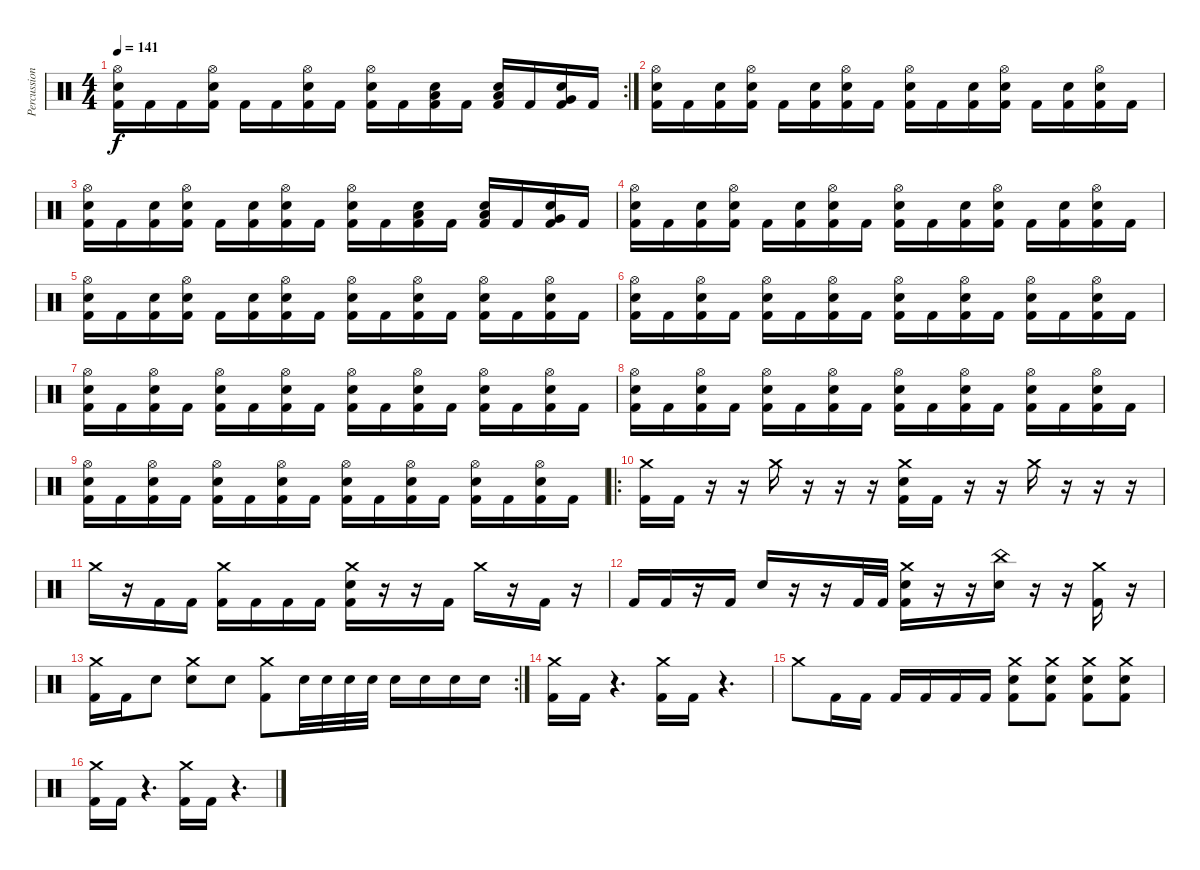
\track ("Percussion" "Percussion") {instrument percussion}
\staff {score}
\articulation defaults
\rc 2
\ts (4 4)
\tempo 141
\clef neutral
\ks c
("Hi-Hat (open)" "Electric Snare (hit)" "Kick (hit) 2").16{dy f} "Kick (hit) 2".16 "Kick (hit) 2".16 ("Hi-Hat (open)" "Electric Snare (hit)" "Kick (hit) 2").16 "Kick (hit) 2".16 "Kick (hit) 2".16 ("Hi-Hat (open)" "Electric Snare (hit)" "Kick (hit) 2").16 "Kick (hit) 2".16 ("Hi-Hat (open)" "Electric Snare (hit)" "Kick (hit) 2").16 "Kick (hit) 2".16 ("Electric Snare (hit)" "Low Tom (hit)" "Kick (hit) 2").16 "Kick (hit) 2".16 ("Electric Snare (hit)" "Low Floor Tom (hit)" "Kick (hit) 2").16 "Kick (hit) 2".16 ("Electric Snare (hit)" "Very Low Tom (hit)" "Kick (hit) 2").16 "Kick (hit) 2".16 |
("Hi-Hat (open)" "Electric Snare (hit)" "Kick (hit) 2").16 "Kick (hit) 2".16 ("Electric Snare (hit)" "Kick (hit) 2").16 ("Hi-Hat (open)" "Electric Snare (hit)" "Kick (hit) 2").16 "Kick (hit) 2".16 ("Electric Snare (hit)" "Kick (hit) 2").16 ("Hi-Hat (open)" "Electric Snare (hit)" "Kick (hit) 2").16 "Kick (hit) 2".16 ("Hi-Hat (open)" "Electric Snare (hit)" "Kick (hit) 2").16 "Kick (hit) 2".16 ("Electric Snare (hit)" "Kick (hit) 2").16 ("Hi-Hat (open)" "Electric Snare (hit)" "Kick (hit) 2").16 "Kick (hit) 2".16 ("Electric Snare (hit)" "Kick (hit) 2").16 ("Hi-Hat (open)" "Electric Snare (hit)" "Kick (hit) 2").16 "Kick (hit) 2".16 |
("Hi-Hat (open)" "Electric Snare (hit)" "Kick (hit) 2").16 "Kick (hit) 2".16 ("Electric Snare (hit)" "Kick (hit) 2").16 ("Hi-Hat (open)" "Electric Snare (hit)" "Kick (hit) 2").16 "Kick (hit) 2".16 ("Electric Snare (hit)" "Kick (hit) 2").16 ("Hi-Hat (open)" "Electric Snare (hit)" "Kick (hit) 2").16 "Kick (hit) 2".16 ("Hi-Hat (open)" "Electric Snare (hit)" "Kick (hit) 2").16 "Kick (hit) 2".16 ("Electric Snare (hit)" "Low Tom (hit)" "Kick (hit) 2").16 "Kick (hit) 2".16 ("Electric Snare (hit)" "Low Floor Tom (hit)" "Kick (hit) 2").16 "Kick (hit) 2".16 ("Electric Snare (hit)" "Very Low Tom (hit)" "Kick (hit) 2").16 "Kick (hit) 2".16 |
("Hi-Hat (open)" "Electric Snare (hit)" "Kick (hit) 2").16 "Kick (hit) 2".16 ("Electric Snare (hit)" "Kick (hit) 2").16 ("Hi-Hat (open)" "Electric Snare (hit)" "Kick (hit) 2").16 "Kick (hit) 2".16 ("Electric Snare (hit)" "Kick (hit) 2").16 ("Hi-Hat (open)" "Electric Snare (hit)" "Kick (hit) 2").16 "Kick (hit) 2".16 ("Hi-Hat (open)" "Electric Snare (hit)" "Kick (hit) 2").16 "Kick (hit) 2".16 ("Electric Snare (hit)" "Kick (hit) 2").16 ("Hi-Hat (open)" "Electric Snare (hit)" "Kick (hit) 2").16 "Kick (hit) 2".16 ("Electric Snare (hit)" "Kick (hit) 2").16 ("Hi-Hat (open)" "Electric Snare (hit)" "Kick (hit) 2").16 "Kick (hit) 2".16 |
("Hi-Hat (open)" "Electric Snare (hit)" "Kick (hit) 2").16 "Kick (hit) 2".16 ("Electric Snare (hit)" "Kick (hit) 2").16 ("Hi-Hat (open)" "Electric Snare (hit)" "Kick (hit) 2").16 "Kick (hit) 2".16 ("Electric Snare (hit)" "Kick (hit) 2").16 ("Hi-Hat (open)" "Electric Snare (hit)" "Kick (hit) 2").16 "Kick (hit) 2".16 ("Hi-Hat (open)" "Electric Snare (hit)" "Kick (hit) 2").16 "Kick (hit) 2".16 ("Hi-Hat (open)" "Electric Snare (hit)" "Kick (hit) 2").16 "Kick (hit) 2".16 ("Hi-Hat (open)" "Electric Snare (hit)" "Kick (hit) 2").16 "Kick (hit) 2".16 ("Hi-Hat (open)" "Electric Snare (hit)" "Kick (hit) 2").16 "Kick (hit) 2".16 |
("Hi-Hat (open)" "Electric Snare (hit)" "Kick (hit) 2").16 "Kick (hit) 2".16 ("Hi-Hat (open)" "Electric Snare (hit)" "Kick (hit) 2").16 "Kick (hit) 2".16 ("Hi-Hat (open)" "Electric Snare (hit)" "Kick (hit) 2").16 "Kick (hit) 2".16 ("Hi-Hat (open)" "Electric Snare (hit)" "Kick (hit) 2").16 "Kick (hit) 2".16 ("Hi-Hat (open)" "Electric Snare (hit)" "Kick (hit) 2").16 "Kick (hit) 2".16 ("Hi-Hat (open)" "Electric Snare (hit)" "Kick (hit) 2").16 "Kick (hit) 2".16 ("Hi-Hat (open)" "Electric Snare (hit)" "Kick (hit) 2").16 "Kick (hit) 2".16 ("Hi-Hat (open)" "Electric Snare (hit)" "Kick (hit) 2").16 "Kick (hit) 2".16 |
("Hi-Hat (open)" "Electric Snare (hit)" "Kick (hit) 2").16 "Kick (hit) 2".16 ("Hi-Hat (open)" "Electric Snare (hit)" "Kick (hit) 2").16 "Kick (hit) 2".16 ("Hi-Hat (open)" "Electric Snare (hit)" "Kick (hit) 2").16 "Kick (hit) 2".16 ("Hi-Hat (open)" "Electric Snare (hit)" "Kick (hit) 2").16 "Kick (hit) 2".16 ("Hi-Hat (open)" "Electric Snare (hit)" "Kick (hit) 2").16 "Kick (hit) 2".16 ("Hi-Hat (open)" "Electric Snare (hit)" "Kick (hit) 2").16 "Kick (hit) 2".16 ("Hi-Hat (open)" "Electric Snare (hit)" "Kick (hit) 2").16 "Kick (hit) 2".16 ("Hi-Hat (open)" "Electric Snare (hit)" "Kick (hit) 2").16 "Kick (hit) 2".16 |
("Hi-Hat (open)" "Electric Snare (hit)" "Kick (hit) 2").16 "Kick (hit) 2".16 ("Hi-Hat (open)" "Electric Snare (hit)" "Kick (hit) 2").16 "Kick (hit) 2".16 ("Hi-Hat (open)" "Electric Snare (hit)" "Kick (hit) 2").16 "Kick (hit) 2".16 ("Hi-Hat (open)" "Electric Snare (hit)" "Kick (hit) 2").16 "Kick (hit) 2".16 ("Hi-Hat (open)" "Electric Snare (hit)" "Kick (hit) 2").16 "Kick (hit) 2".16 ("Hi-Hat (open)" "Electric Snare (hit)" "Kick (hit) 2").16 "Kick (hit) 2".16 ("Hi-Hat (open)" "Electric Snare (hit)" "Kick (hit) 2").16 "Kick (hit) 2".16 ("Hi-Hat (open)" "Electric Snare (hit)" "Kick (hit) 2").16 "Kick (hit) 2".16 |
("Hi-Hat (open)" "Electric Snare (hit)" "Kick (hit) 2").16 "Kick (hit) 2".16 ("Hi-Hat (open)" "Electric Snare (hit)" "Kick (hit) 2").16 "Kick (hit) 2".16 ("Hi-Hat (open)" "Electric Snare (hit)" "Kick (hit) 2").16 "Kick (hit) 2".16 ("Hi-Hat (open)" "Electric Snare (hit)" "Kick (hit) 2").16 "Kick (hit) 2".16 ("Hi-Hat (open)" "Electric Snare (hit)" "Kick (hit) 2").16 "Kick (hit) 2".16 ("Hi-Hat (open)" "Electric Snare (hit)" "Kick (hit) 2").16 "Kick (hit) 2".16 ("Hi-Hat (open)" "Electric Snare (hit)" "Kick (hit) 2").16 "Kick (hit) 2".16 ("Hi-Hat (open)" "Electric Snare (hit)" "Kick (hit) 2").16 "Kick (hit) 2".16 |
\ro
("Crash medium (hit)" "Kick (hit) 2").16 "Kick (hit) 2".16 r.16 r.16 "Crash medium (hit)".16 r.16 r.16 r.16 ("Crash medium (hit)" "Electric Snare (hit)" "Kick (hit) 2").16 "Kick (hit) 2".16 r.16 r.16 "Crash medium (hit)".16 r.16 r.16 r.16 |
"Crash medium (hit)".16 r.16 "Kick (hit) 2".16 "Kick (hit) 2".16 ("Crash medium (hit)" "Kick (hit) 2").16 "Kick (hit) 2".16 "Kick (hit) 2".16 "Kick (hit) 2".16 ("Crash medium (hit)" "Electric Snare (hit)" "Kick (hit) 2").16 r.16 r.16 "Kick (hit) 2".16 "Crash medium (hit)".16 r.16 "Kick (hit) 2".16 r.16 |
"Kick (hit) 2".16 "Kick (hit) 2".16 r.16 "Kick (hit) 2".16 "Electric Snare (hit)".16 r.16 r.16 "Kick (hit) 2".32 "Kick (hit) 2".32 ("Crash medium (hit)" "Electric Snare (hit)" "Kick (hit) 2").16 r.16 r.16 ("China (hit)" "Electric Snare (hit)").16 r.16 r.16 ("Crash medium (hit)" "Kick (hit) 2").16 r.16 |
\rc 2
("Crash medium (hit)" "Kick (hit) 2").16 "Kick (hit) 2".16 "Electric Snare (hit)".8 ("Crash medium (hit)" "Electric Snare (hit)").8 "Electric Snare (hit)".8 ("Crash medium (hit)" "Kick (hit) 2").8 "Electric Snare (hit)".32 "Electric Snare (hit)".32 "Electric Snare (hit)".32 "Electric Snare (hit)".32 "Electric Snare (hit)".16 "Electric Snare (hit)".16 "Electric Snare (hit)".16 "Electric Snare (hit)".16 |
("Crash medium (hit)" "Kick (hit) 2").16 "Kick (hit) 2".16 r.4{d} ("Crash medium (hit)" "Kick (hit) 2").16 "Kick (hit) 2".16 r.4{d} |
"Crash medium (hit)".8 "Kick (hit) 2".16 "Kick (hit) 2".16 "Kick (hit) 2".16 "Kick (hit) 2".16 "Kick (hit) 2".16 "Kick (hit) 2".16 ("Crash medium (hit)" "Electric Snare (hit)" "Kick (hit) 2").8 ("Crash medium (hit)" "Electric Snare (hit)" "Kick (hit) 2").8 ("Crash medium (hit)" "Electric Snare (hit)" "Kick (hit) 2").8 ("Crash medium (hit)" "Electric Snare (hit)" "Kick (hit) 2").8 |
("Crash medium (hit)" "Kick (hit) 2").16 "Kick (hit) 2".16 r.4{d} ("Crash medium (hit)" "Kick (hit) 2").16 "Kick (hit) 2".16 r.4{d}
